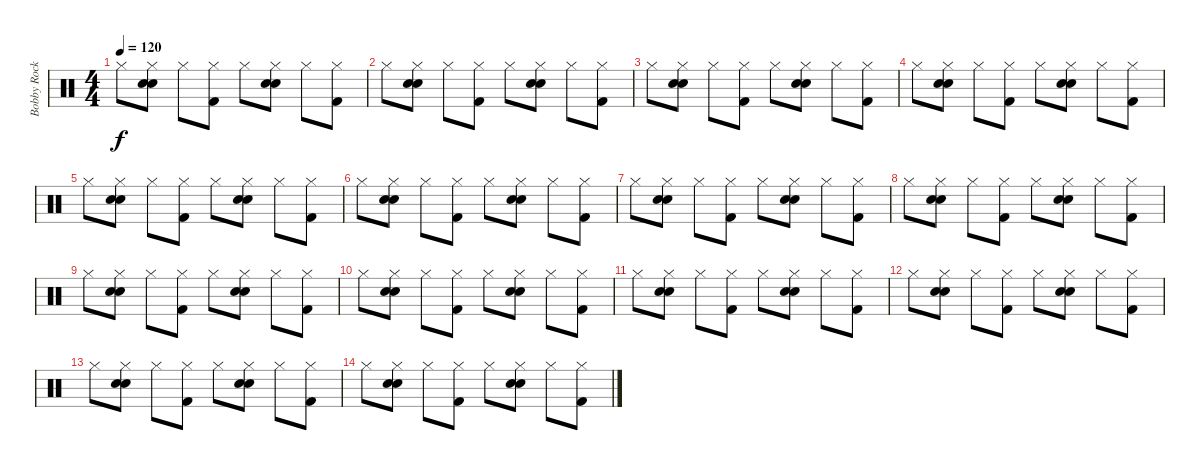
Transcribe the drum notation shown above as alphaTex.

\track ("Bobby Rock" "Bobby Rock") {instrument percussion}
\staff {score}
\articulation defaults
\ts (4 4)
\tempo 120
\clef neutral
\ks c "Hi-Hat (closed)".8{dy f}
("Hi-Hat (closed)" "Snare (hit) 2" "Electric Snare (hit)").8 "Hi-Hat (closed)".8 ("Hi-Hat (closed)" "Kick (hit) 2").8 "Hi-Hat (closed)".8 ("Hi-Hat (closed)" "Snare (hit) 2" "Electric Snare (hit)").8 "Hi-Hat (closed)".8 ("Hi-Hat (closed)" "Kick (hit) 2").8 |
"Hi-Hat (closed)".8 ("Hi-Hat (closed)" "Snare (hit) 2" "Electric Snare (hit)").8 "Hi-Hat (closed)".8 ("Hi-Hat (closed)" "Kick (hit) 2").8 "Hi-Hat (closed)".8 ("Hi-Hat (closed)" "Snare (hit) 2" "Electric Snare (hit)").8 "Hi-Hat (closed)".8 ("Hi-Hat (closed)" "Kick (hit) 2").8 |
"Hi-Hat (closed)".8 ("Hi-Hat (closed)" "Snare (hit) 2" "Electric Snare (hit)").8 "Hi-Hat (closed)".8 ("Hi-Hat (closed)" "Kick (hit) 2").8 "Hi-Hat (closed)".8 ("Hi-Hat (closed)" "Snare (hit) 2" "Electric Snare (hit)").8 "Hi-Hat (closed)".8 ("Hi-Hat (closed)" "Kick (hit) 2").8 |
"Hi-Hat (closed)".8 ("Hi-Hat (closed)" "Snare (hit) 2" "Electric Snare (hit)").8 "Hi-Hat (closed)".8 ("Hi-Hat (closed)" "Kick (hit) 2").8 "Hi-Hat (closed)".8 ("Hi-Hat (closed)" "Snare (hit) 2" "Electric Snare (hit)").8 "Hi-Hat (closed)".8 ("Hi-Hat (closed)" "Kick (hit) 2").8 |
"Hi-Hat (closed)".8 ("Hi-Hat (closed)" "Snare (hit) 2" "Electric Snare (hit)").8 "Hi-Hat (closed)".8 ("Hi-Hat (closed)" "Kick (hit) 2").8 "Hi-Hat (closed)".8 ("Hi-Hat (closed)" "Snare (hit) 2" "Electric Snare (hit)").8 "Hi-Hat (closed)".8 ("Hi-Hat (closed)" "Kick (hit) 2").8 |
"Hi-Hat (closed)".8 ("Hi-Hat (closed)" "Snare (hit) 2" "Electric Snare (hit)").8 "Hi-Hat (closed)".8 ("Hi-Hat (closed)" "Kick (hit) 2").8 "Hi-Hat (closed)".8 ("Hi-Hat (closed)" "Snare (hit) 2" "Electric Snare (hit)").8 "Hi-Hat (closed)".8 ("Hi-Hat (closed)" "Kick (hit) 2").8 |
"Hi-Hat (closed)".8 ("Hi-Hat (closed)" "Snare (hit) 2" "Electric Snare (hit)").8 "Hi-Hat (closed)".8 ("Hi-Hat (closed)" "Kick (hit) 2").8 "Hi-Hat (closed)".8 ("Hi-Hat (closed)" "Snare (hit) 2" "Electric Snare (hit)").8 "Hi-Hat (closed)".8 ("Hi-Hat (closed)" "Kick (hit) 2").8 |
"Hi-Hat (closed)".8 ("Hi-Hat (closed)" "Snare (hit) 2" "Electric Snare (hit)").8 "Hi-Hat (closed)".8 ("Hi-Hat (closed)" "Kick (hit) 2").8 "Hi-Hat (closed)".8 ("Hi-Hat (closed)" "Snare (hit) 2" "Electric Snare (hit)").8 "Hi-Hat (closed)".8 ("Hi-Hat (closed)" "Kick (hit) 2").8 |
"Hi-Hat (closed)".8 ("Hi-Hat (closed)" "Snare (hit) 2" "Electric Snare (hit)").8 "Hi-Hat (closed)".8 ("Hi-Hat (closed)" "Kick (hit) 2").8 "Hi-Hat (closed)".8 ("Hi-Hat (closed)" "Snare (hit) 2" "Electric Snare (hit)").8 "Hi-Hat (closed)".8 ("Hi-Hat (closed)" "Kick (hit) 2").8 |
"Hi-Hat (closed)".8 ("Hi-Hat (closed)" "Snare (hit) 2" "Electric Snare (hit)").8 "Hi-Hat (closed)".8 ("Hi-Hat (closed)" "Kick (hit) 2").8 "Hi-Hat (closed)".8 ("Hi-Hat (closed)" "Snare (hit) 2" "Electric Snare (hit)").8 "Hi-Hat (closed)".8 ("Hi-Hat (closed)" "Kick (hit) 2").8 |
"Hi-Hat (closed)".8 ("Hi-Hat (closed)" "Snare (hit) 2" "Electric Snare (hit)").8 "Hi-Hat (closed)".8 ("Hi-Hat (closed)" "Kick (hit) 2").8 "Hi-Hat (closed)".8 ("Hi-Hat (closed)" "Snare (hit) 2" "Electric Snare (hit)").8 "Hi-Hat (closed)".8 ("Hi-Hat (closed)" "Kick (hit) 2").8 |
"Hi-Hat (closed)".8 ("Hi-Hat (closed)" "Snare (hit) 2" "Electric Snare (hit)").8 "Hi-Hat (closed)".8 ("Hi-Hat (closed)" "Kick (hit) 2").8 "Hi-Hat (closed)".8 ("Hi-Hat (closed)" "Snare (hit) 2" "Electric Snare (hit)").8 "Hi-Hat (closed)".8 ("Hi-Hat (closed)" "Kick (hit) 2").8 |
"Hi-Hat (closed)".8 ("Hi-Hat (closed)" "Snare (hit) 2" "Electric Snare (hit)").8 "Hi-Hat (closed)".8 ("Hi-Hat (closed)" "Kick (hit) 2").8 "Hi-Hat (closed)".8 ("Hi-Hat (closed)" "Snare (hit) 2" "Electric Snare (hit)").8 "Hi-Hat (closed)".8 ("Hi-Hat (closed)" "Kick (hit) 2").8 |
"Hi-Hat (closed)".8 ("Hi-Hat (closed)" "Snare (hit) 2" "Electric Snare (hit)").8 "Hi-Hat (closed)".8 ("Hi-Hat (closed)" "Kick (hit) 2").8 "Hi-Hat (closed)".8 ("Hi-Hat (closed)" "Snare (hit) 2" "Electric Snare (hit)").8 "Hi-Hat (closed)".8 ("Hi-Hat (closed)" "Kick (hit) 2").8
